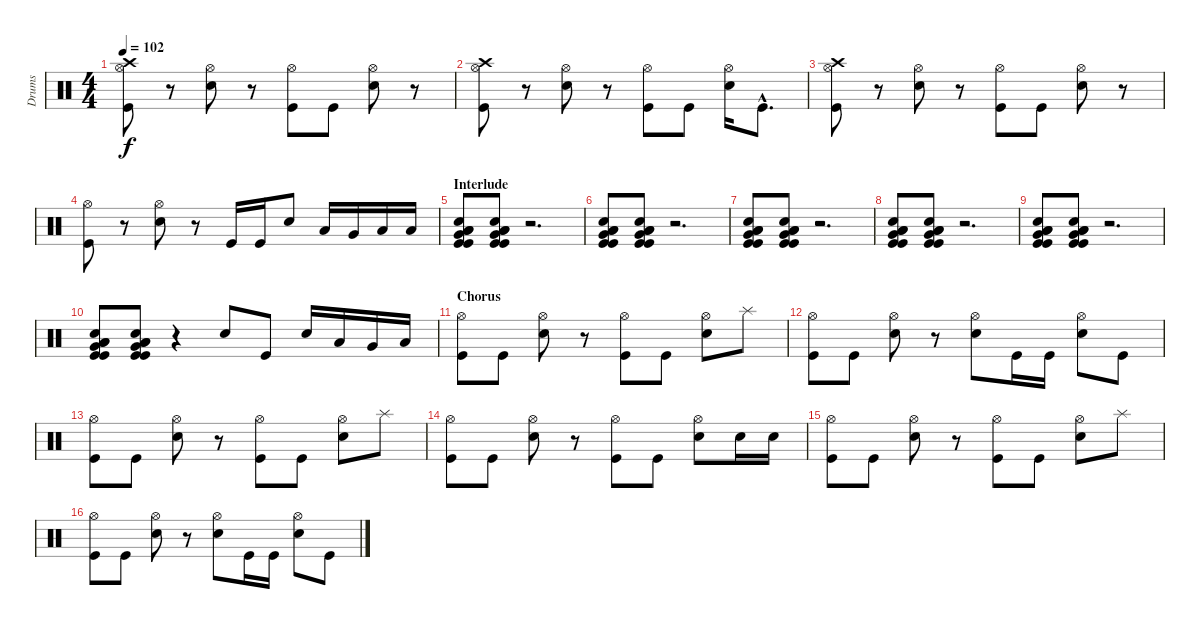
\track ("Drums" "Drums") {instrument percussion}
\staff {score}
\articulation defaults
\ts (4 4)
\tempo 102
\clef neutral
\ks c
("Hi-Hat (open)" "Crash high (hit)" "Kick (hit)").8{dy f} r.8 ("Hi-Hat (open)" "Snare (hit) 2").8 r.8 ("Hi-Hat (open)" "Kick (hit)").8 "Kick (hit)".8 ("Hi-Hat (open)" "Snare (hit) 2").8 r.8 |
("Hi-Hat (open)" "Crash high (hit)" "Kick (hit)").8 r.8 ("Hi-Hat (open)" "Snare (hit) 2").8 r.8 ("Hi-Hat (open)" "Kick (hit)").8 "Kick (hit)".8 ("Hi-Hat (open)" "Snare (hit) 2").16 "Kick (hit)"{hac}.8{d} |
("Hi-Hat (open)" "Crash high (hit)" "Kick (hit)").8 r.8 ("Hi-Hat (open)" "Snare (hit) 2").8 r.8 ("Hi-Hat (open)" "Kick (hit)").8 "Kick (hit)".8 ("Hi-Hat (open)" "Snare (hit) 2").8 r.8 |
("Hi-Hat (open)" "Kick (hit)").8 r.8 ("Hi-Hat (open)" "Snare (hit) 2").8 r.8 "Kick (hit)".16 "Kick (hit)".16 "Snare (hit) 2".8 "Low Tom (hit)".16 "Very Low Tom (hit)".16 "Low Floor Tom (hit)".16 "Low Floor Tom (hit)".16 |
\section ("" "Interlude")
("Kick (hit)" "Low Floor Tom (hit)" "Snare (hit) 2" "Very Low Tom (hit)" "Low Floor Tom (hit)" "Kick (hit)").8 ("Kick (hit)" "Low Floor Tom (hit)" "Snare (hit) 2" "Very Low Tom (hit)" "Low Floor Tom (hit)" "Kick (hit)").8 r.2{d} |
("Kick (hit)" "Low Floor Tom (hit)" "Snare (hit) 2" "Very Low Tom (hit)" "Low Floor Tom (hit)" "Kick (hit)").8 ("Kick (hit)" "Low Floor Tom (hit)" "Snare (hit) 2" "Very Low Tom (hit)" "Low Floor Tom (hit)" "Kick (hit)").8 r.2{d} |
("Kick (hit)" "Low Floor Tom (hit)" "Snare (hit) 2" "Very Low Tom (hit)" "Low Floor Tom (hit)" "Kick (hit)").8 ("Kick (hit)" "Low Floor Tom (hit)" "Snare (hit) 2" "Very Low Tom (hit)" "Low Floor Tom (hit)" "Kick (hit)").8 r.2{d} |
("Kick (hit)" "Low Floor Tom (hit)" "Snare (hit) 2" "Very Low Tom (hit)" "Low Floor Tom (hit)" "Kick (hit)").8 ("Kick (hit)" "Low Floor Tom (hit)" "Snare (hit) 2" "Very Low Tom (hit)" "Low Floor Tom (hit)" "Kick (hit)").8 r.2{d} |
("Kick (hit)" "Low Floor Tom (hit)" "Snare (hit) 2" "Very Low Tom (hit)" "Low Floor Tom (hit)" "Kick (hit)").8 ("Kick (hit)" "Low Floor Tom (hit)" "Snare (hit) 2" "Very Low Tom (hit)" "Low Floor Tom (hit)" "Kick (hit)").8 r.2{d} |
("Kick (hit)" "Low Floor Tom (hit)" "Snare (hit) 2" "Very Low Tom (hit)" "Low Floor Tom (hit)" "Kick (hit)").8 ("Kick (hit)" "Low Floor Tom (hit)" "Snare (hit) 2" "Very Low Tom (hit)" "Low Floor Tom (hit)" "Kick (hit)").8 r.4 "Snare (hit) 2".8 "Kick (hit)".8 "Snare (hit) 2".16 "Low Tom (hit)".16 "Very Low Tom (hit)".16 "Low Floor Tom (hit)".16 |
\section ("" "Chorus")
("Hi-Hat (open)" "Kick (hit)").8 "Kick (hit)".8 ("Hi-Hat (open)" "Snare (hit) 2").8 r.8 ("Hi-Hat (open)" "Kick (hit)").8 "Kick (hit)".8 ("Hi-Hat (open)" "Snare (hit) 2").8 "Splash (hit)".8 |
("Hi-Hat (open)" "Kick (hit)").8 "Kick (hit)".8 ("Hi-Hat (open)" "Snare (hit) 2").8 r.8 ("Hi-Hat (open)" "Snare (hit) 2").8 "Kick (hit)".16 "Kick (hit)".16 ("Hi-Hat (open)" "Snare (hit) 2").8 "Kick (hit)".8 |
("Hi-Hat (open)" "Kick (hit)").8 "Kick (hit)".8 ("Hi-Hat (open)" "Snare (hit) 2").8 r.8 ("Hi-Hat (open)" "Kick (hit)").8 "Kick (hit)".8 ("Hi-Hat (open)" "Snare (hit) 2").8 "Splash (hit)".8 |
("Hi-Hat (open)" "Kick (hit)").8 "Kick (hit)".8 ("Hi-Hat (open)" "Snare (hit) 2").8 r.8 ("Hi-Hat (open)" "Kick (hit)").8 "Kick (hit)".8 ("Hi-Hat (open)" "Snare (hit) 2").8 "Snare (hit) 2".16 "Snare (hit) 2".16 |
("Hi-Hat (open)" "Kick (hit)").8 "Kick (hit)".8 ("Hi-Hat (open)" "Snare (hit) 2").8 r.8 ("Hi-Hat (open)" "Kick (hit)").8 "Kick (hit)".8 ("Hi-Hat (open)" "Snare (hit) 2").8 "Splash (hit)".8 |
("Hi-Hat (open)" "Kick (hit)").8 "Kick (hit)".8 ("Hi-Hat (open)" "Snare (hit) 2").8 r.8 ("Hi-Hat (open)" "Snare (hit) 2").8 "Kick (hit)".16 "Kick (hit)".16 ("Hi-Hat (open)" "Snare (hit) 2").8 "Kick (hit)".8
